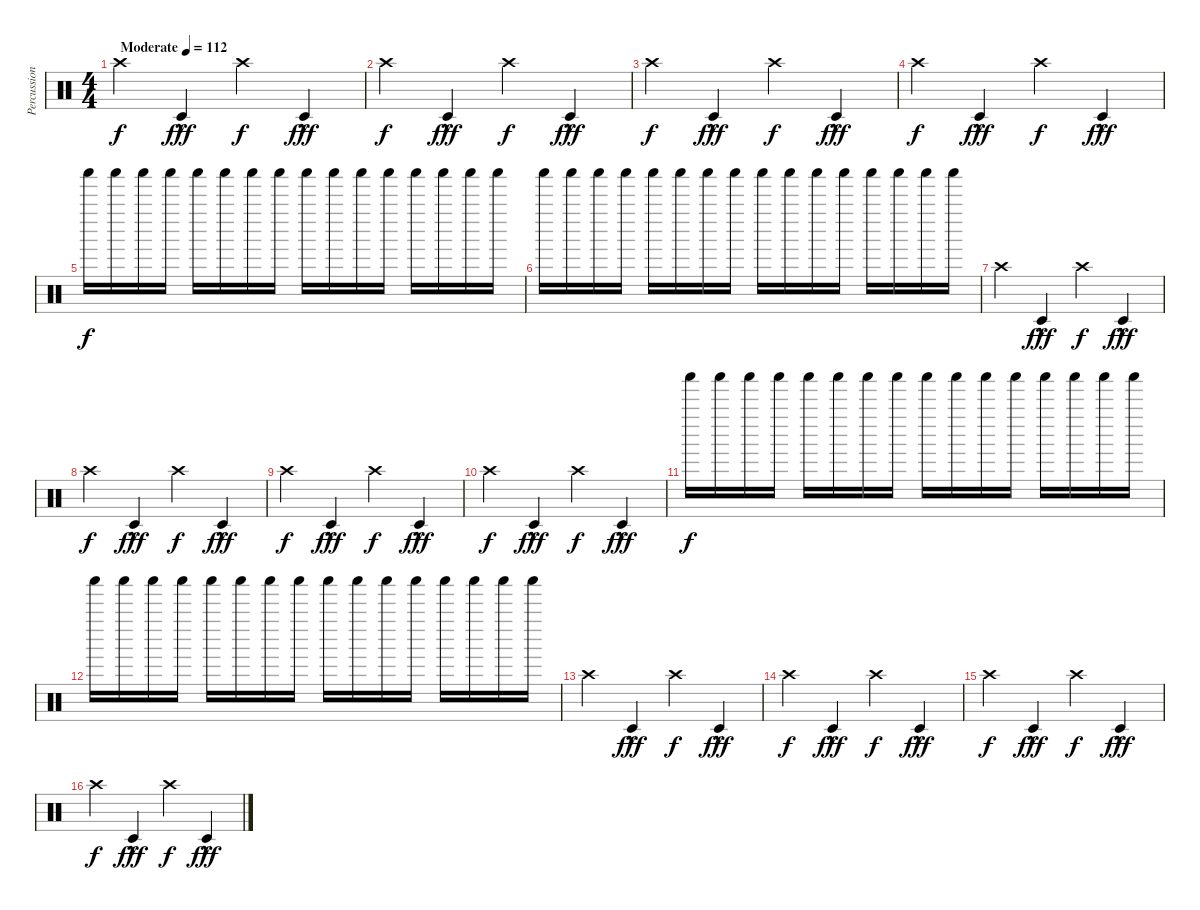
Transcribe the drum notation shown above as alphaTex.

\track ("Percussion" "Percussion") {instrument percussion}
\staff {score}
\articulation defaults
\ts (4 4)
\tempo (112 "Moderate")
\clef neutral
\ks c "Crash high (hit)".4{dy f} "Timbale low (hit)"{hac}.4{dy fff} "Crash high (hit)".4{dy f} "Timbale low (hit)"{hac}.4{dy fff}
|
"Crash high (hit)".4{dy f} "Timbale low (hit)"{hac}.4{dy fff} "Crash high (hit)".4{dy f} "Timbale low (hit)"{hac}.4{dy fff} |
"Crash high (hit)".4{dy f} "Timbale low (hit)"{hac}.4{dy fff} "Crash high (hit)".4{dy f} "Timbale low (hit)"{hac}.4{dy fff} |
"Crash high (hit)".4{dy f} "Timbale low (hit)"{hac}.4{dy fff} "Crash high (hit)".4{dy f} "Timbale low (hit)"{hac}.4{dy fff} |
"Shaker (hit)".16{dy f} "Shaker (hit)".16 "Shaker (hit)".16 "Shaker (hit)".16 "Shaker (hit)".16 "Shaker (hit)".16 "Shaker (hit)".16 "Shaker (hit)".16 "Shaker (hit)".16 "Shaker (hit)".16 "Shaker (hit)".16 "Shaker (hit)".16 "Shaker (hit)".16 "Shaker (hit)".16 "Shaker (hit)".16 "Shaker (hit)".16 |
"Shaker (hit)".16 "Shaker (hit)".16 "Shaker (hit)".16 "Shaker (hit)".16 "Shaker (hit)".16 "Shaker (hit)".16 "Shaker (hit)".16 "Shaker (hit)".16 "Shaker (hit)".16 "Shaker (hit)".16 "Shaker (hit)".16 "Shaker (hit)".16 "Shaker (hit)".16 "Shaker (hit)".16 "Shaker (hit)".16 "Shaker (hit)".16 |
"Crash high (hit)".4 "Timbale low (hit)"{hac}.4{dy fff} "Crash high (hit)".4{dy f} "Timbale low (hit)"{hac}.4{dy fff} |
"Crash high (hit)".4{dy f} "Timbale low (hit)"{hac}.4{dy fff} "Crash high (hit)".4{dy f} "Timbale low (hit)"{hac}.4{dy fff} |
"Crash high (hit)".4{dy f} "Timbale low (hit)"{hac}.4{dy fff} "Crash high (hit)".4{dy f} "Timbale low (hit)"{hac}.4{dy fff} |
"Crash high (hit)".4{dy f} "Timbale low (hit)"{hac}.4{dy fff} "Crash high (hit)".4{dy f} "Timbale low (hit)"{hac}.4{dy fff} |
"Shaker (hit)".16{dy f} "Shaker (hit)".16 "Shaker (hit)".16 "Shaker (hit)".16 "Shaker (hit)".16 "Shaker (hit)".16 "Shaker (hit)".16 "Shaker (hit)".16 "Shaker (hit)".16 "Shaker (hit)".16 "Shaker (hit)".16 "Shaker (hit)".16 "Shaker (hit)".16 "Shaker (hit)".16 "Shaker (hit)".16 "Shaker (hit)".16 |
"Shaker (hit)".16 "Shaker (hit)".16 "Shaker (hit)".16 "Shaker (hit)".16 "Shaker (hit)".16 "Shaker (hit)".16 "Shaker (hit)".16 "Shaker (hit)".16 "Shaker (hit)".16 "Shaker (hit)".16 "Shaker (hit)".16 "Shaker (hit)".16 "Shaker (hit)".16 "Shaker (hit)".16 "Shaker (hit)".16 "Shaker (hit)".16 |
"Crash high (hit)".4 "Timbale low (hit)"{hac}.4{dy fff} "Crash high (hit)".4{dy f} "Timbale low (hit)"{hac}.4{dy fff} |
"Crash high (hit)".4{dy f} "Timbale low (hit)"{hac}.4{dy fff} "Crash high (hit)".4{dy f} "Timbale low (hit)"{hac}.4{dy fff} |
"Crash high (hit)".4{dy f} "Timbale low (hit)"{hac}.4{dy fff} "Crash high (hit)".4{dy f} "Timbale low (hit)"{hac}.4{dy fff} |
"Crash high (hit)".4{dy f} "Timbale low (hit)"{hac}.4{dy fff} "Crash high (hit)".4{dy f} "Timbale low (hit)"{hac}.4{dy fff}
